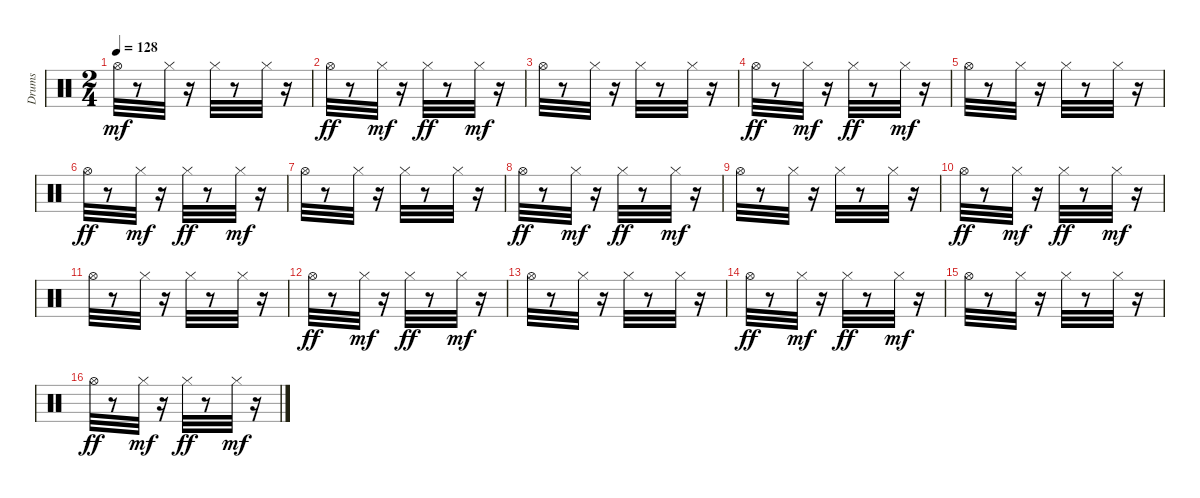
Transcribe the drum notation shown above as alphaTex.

\track ("Drums" "Drums") {instrument percussion}
\staff {score}
\articulation defaults
\ts (2 4)
\tempo 128
\clef neutral
\ks c "Hi-Hat (open)".32{dy mf}
r.8 "Hi-Hat (closed)".32 r.16 "Hi-Hat (closed)".32 r.8 "Hi-Hat (closed)".32 r.16 |
"Hi-Hat (open)".32{dy ff} r.8 "Hi-Hat (closed)".32{dy mf} r.16 "Hi-Hat (closed)".32{dy ff} r.8 "Hi-Hat (closed)".32{dy mf} r.16 |
"Hi-Hat (open)".32 r.8 "Hi-Hat (closed)".32 r.16 "Hi-Hat (closed)".32 r.8 "Hi-Hat (closed)".32 r.16 |
"Hi-Hat (open)".32{dy ff} r.8 "Hi-Hat (closed)".32{dy mf} r.16 "Hi-Hat (closed)".32{dy ff} r.8 "Hi-Hat (closed)".32{dy mf} r.16 |
"Hi-Hat (open)".32 r.8 "Hi-Hat (closed)".32 r.16 "Hi-Hat (closed)".32 r.8 "Hi-Hat (closed)".32 r.16 |
"Hi-Hat (open)".32{dy ff} r.8 "Hi-Hat (closed)".32{dy mf} r.16 "Hi-Hat (closed)".32{dy ff} r.8 "Hi-Hat (closed)".32{dy mf} r.16 |
"Hi-Hat (open)".32 r.8 "Hi-Hat (closed)".32 r.16 "Hi-Hat (closed)".32 r.8 "Hi-Hat (closed)".32 r.16 |
"Hi-Hat (open)".32{dy ff} r.8 "Hi-Hat (closed)".32{dy mf} r.16 "Hi-Hat (closed)".32{dy ff} r.8 "Hi-Hat (closed)".32{dy mf} r.16 |
"Hi-Hat (open)".32 r.8 "Hi-Hat (closed)".32 r.16 "Hi-Hat (closed)".32 r.8 "Hi-Hat (closed)".32 r.16 |
"Hi-Hat (open)".32{dy ff} r.8 "Hi-Hat (closed)".32{dy mf} r.16 "Hi-Hat (closed)".32{dy ff} r.8 "Hi-Hat (closed)".32{dy mf} r.16 |
"Hi-Hat (open)".32 r.8 "Hi-Hat (closed)".32 r.16 "Hi-Hat (closed)".32 r.8 "Hi-Hat (closed)".32 r.16 |
"Hi-Hat (open)".32{dy ff} r.8 "Hi-Hat (closed)".32{dy mf} r.16 "Hi-Hat (closed)".32{dy ff} r.8 "Hi-Hat (closed)".32{dy mf} r.16 |
"Hi-Hat (open)".32 r.8 "Hi-Hat (closed)".32 r.16 "Hi-Hat (closed)".32 r.8 "Hi-Hat (closed)".32 r.16 |
"Hi-Hat (open)".32{dy ff} r.8 "Hi-Hat (closed)".32{dy mf} r.16 "Hi-Hat (closed)".32{dy ff} r.8 "Hi-Hat (closed)".32{dy mf} r.16 |
"Hi-Hat (open)".32 r.8 "Hi-Hat (closed)".32 r.16 "Hi-Hat (closed)".32 r.8 "Hi-Hat (closed)".32 r.16 |
"Hi-Hat (open)".32{dy ff} r.8 "Hi-Hat (closed)".32{dy mf} r.16 "Hi-Hat (closed)".32{dy ff} r.8 "Hi-Hat (closed)".32{dy mf} r.16
